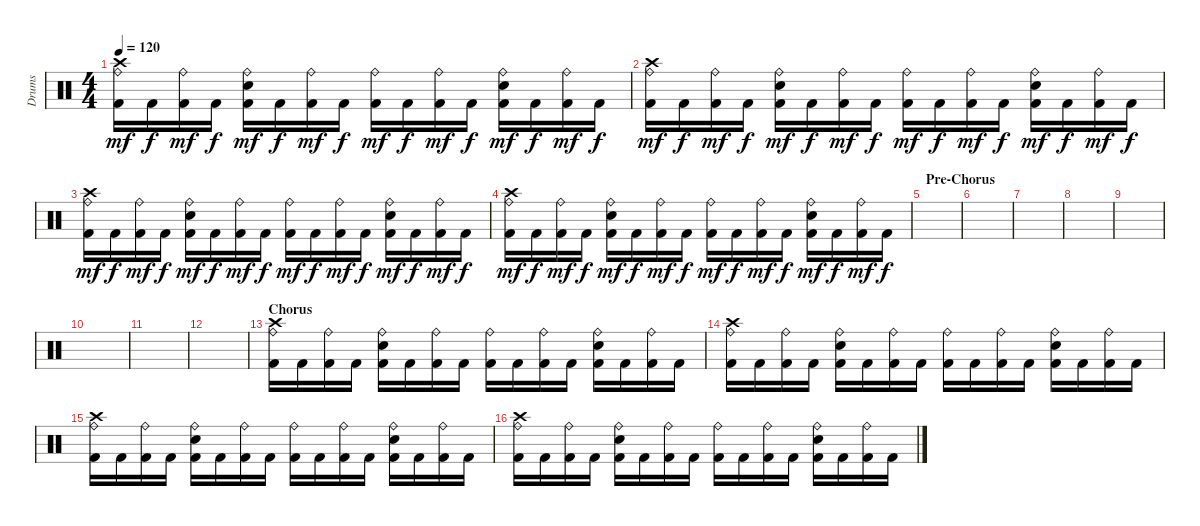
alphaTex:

\track ("Drums" "Drums") {instrument percussion}
\staff {score}
\articulation defaults
\ts (4 4)
\tempo 120
\clef neutral
\ks c
("Crash high (hit)" "Ride (bell)" "Kick (hit) 2").16{dy mf} "Kick (hit) 2".16{dy f} ("Ride (bell)" "Kick (hit) 2").16{dy mf} "Kick (hit) 2".16{dy f} ("Ride (bell)" "Electric Snare (hit)" "Kick (hit) 2").16{dy mf} "Kick (hit) 2".16{dy f} ("Ride (bell)" "Kick (hit) 2").16{dy mf} "Kick (hit) 2".16{dy f} ("Ride (bell)" "Kick (hit) 2").16{dy mf} "Kick (hit) 2".16{dy f} ("Ride (bell)" "Kick (hit) 2").16{dy mf} "Kick (hit) 2".16{dy f} ("Ride (bell)" "Electric Snare (hit)" "Kick (hit) 2").16{dy mf} "Kick (hit) 2".16{dy f} ("Ride (bell)" "Kick (hit) 2").16{dy mf} "Kick (hit) 2".16{dy f} |
("Crash high (hit)" "Ride (bell)" "Kick (hit) 2").16{dy mf} "Kick (hit) 2".16{dy f} ("Ride (bell)" "Kick (hit) 2").16{dy mf} "Kick (hit) 2".16{dy f} ("Ride (bell)" "Electric Snare (hit)" "Kick (hit) 2").16{dy mf} "Kick (hit) 2".16{dy f} ("Ride (bell)" "Kick (hit) 2").16{dy mf} "Kick (hit) 2".16{dy f} ("Ride (bell)" "Kick (hit) 2").16{dy mf} "Kick (hit) 2".16{dy f} ("Ride (bell)" "Kick (hit) 2").16{dy mf} "Kick (hit) 2".16{dy f} ("Ride (bell)" "Electric Snare (hit)" "Kick (hit) 2").16{dy mf} "Kick (hit) 2".16{dy f} ("Ride (bell)" "Kick (hit) 2").16{dy mf} "Kick (hit) 2".16{dy f} |
("Crash high (hit)" "Ride (bell)" "Kick (hit) 2").16{dy mf} "Kick (hit) 2".16{dy f} ("Ride (bell)" "Kick (hit) 2").16{dy mf} "Kick (hit) 2".16{dy f} ("Ride (bell)" "Electric Snare (hit)" "Kick (hit) 2").16{dy mf} "Kick (hit) 2".16{dy f} ("Ride (bell)" "Kick (hit) 2").16{dy mf} "Kick (hit) 2".16{dy f} ("Ride (bell)" "Kick (hit) 2").16{dy mf} "Kick (hit) 2".16{dy f} ("Ride (bell)" "Kick (hit) 2").16{dy mf} "Kick (hit) 2".16{dy f} ("Ride (bell)" "Electric Snare (hit)" "Kick (hit) 2").16{dy mf} "Kick (hit) 2".16{dy f} ("Ride (bell)" "Kick (hit) 2").16{dy mf} "Kick (hit) 2".16{dy f} |
("Crash high (hit)" "Ride (bell)" "Kick (hit) 2").16{dy mf} "Kick (hit) 2".16{dy f} ("Ride (bell)" "Kick (hit) 2").16{dy mf} "Kick (hit) 2".16{dy f} ("Ride (bell)" "Electric Snare (hit)" "Kick (hit) 2").16{dy mf} "Kick (hit) 2".16{dy f} ("Ride (bell)" "Kick (hit) 2").16{dy mf} "Kick (hit) 2".16{dy f} ("Ride (bell)" "Kick (hit) 2").16{dy mf} "Kick (hit) 2".16{dy f} ("Ride (bell)" "Kick (hit) 2").16{dy mf} "Kick (hit) 2".16{dy f} ("Ride (bell)" "Electric Snare (hit)" "Kick (hit) 2").16{dy mf} "Kick (hit) 2".16{dy f} ("Ride (bell)" "Kick (hit) 2").16{dy mf} "Kick (hit) 2".16{dy f} |
\section ("" "Pre-Chorus")
|
|
|
|
|
|
|
|
\section ("" "Chorus")
("Crash high (hit)" "Ride (bell)" "Kick (hit) 2").16 "Kick (hit) 2".16 ("Ride (bell)" "Kick (hit) 2").16 "Kick (hit) 2".16 ("Ride (bell)" "Electric Snare (hit)" "Kick (hit) 2").16 "Kick (hit) 2".16 ("Ride (bell)" "Kick (hit) 2").16 "Kick (hit) 2".16 ("Ride (bell)" "Kick (hit) 2").16 "Kick (hit) 2".16 ("Ride (bell)" "Kick (hit) 2").16 "Kick (hit) 2".16 ("Ride (bell)" "Electric Snare (hit)" "Kick (hit) 2").16 "Kick (hit) 2".16 ("Ride (bell)" "Kick (hit) 2").16 "Kick (hit) 2".16 |
("Crash high (hit)" "Ride (bell)" "Kick (hit) 2").16 "Kick (hit) 2".16 ("Ride (bell)" "Kick (hit) 2").16 "Kick (hit) 2".16 ("Ride (bell)" "Electric Snare (hit)" "Kick (hit) 2").16 "Kick (hit) 2".16 ("Ride (bell)" "Kick (hit) 2").16 "Kick (hit) 2".16 ("Ride (bell)" "Kick (hit) 2").16 "Kick (hit) 2".16 ("Ride (bell)" "Kick (hit) 2").16 "Kick (hit) 2".16 ("Ride (bell)" "Electric Snare (hit)" "Kick (hit) 2").16 "Kick (hit) 2".16 ("Ride (bell)" "Kick (hit) 2").16 "Kick (hit) 2".16 |
("Crash high (hit)" "Ride (bell)" "Kick (hit) 2").16 "Kick (hit) 2".16 ("Ride (bell)" "Kick (hit) 2").16 "Kick (hit) 2".16 ("Ride (bell)" "Electric Snare (hit)" "Kick (hit) 2").16 "Kick (hit) 2".16 ("Ride (bell)" "Kick (hit) 2").16 "Kick (hit) 2".16 ("Ride (bell)" "Kick (hit) 2").16 "Kick (hit) 2".16 ("Ride (bell)" "Kick (hit) 2").16 "Kick (hit) 2".16 ("Ride (bell)" "Electric Snare (hit)" "Kick (hit) 2").16 "Kick (hit) 2".16 ("Ride (bell)" "Kick (hit) 2").16 "Kick (hit) 2".16 |
("Crash high (hit)" "Ride (bell)" "Kick (hit) 2").16 "Kick (hit) 2".16 ("Ride (bell)" "Kick (hit) 2").16 "Kick (hit) 2".16 ("Ride (bell)" "Electric Snare (hit)" "Kick (hit) 2").16 "Kick (hit) 2".16 ("Ride (bell)" "Kick (hit) 2").16 "Kick (hit) 2".16 ("Ride (bell)" "Kick (hit) 2").16 "Kick (hit) 2".16 ("Ride (bell)" "Kick (hit) 2").16 "Kick (hit) 2".16 ("Ride (bell)" "Electric Snare (hit)" "Kick (hit) 2").16 "Kick (hit) 2".16 ("Ride (bell)" "Kick (hit) 2").16 "Kick (hit) 2".16
